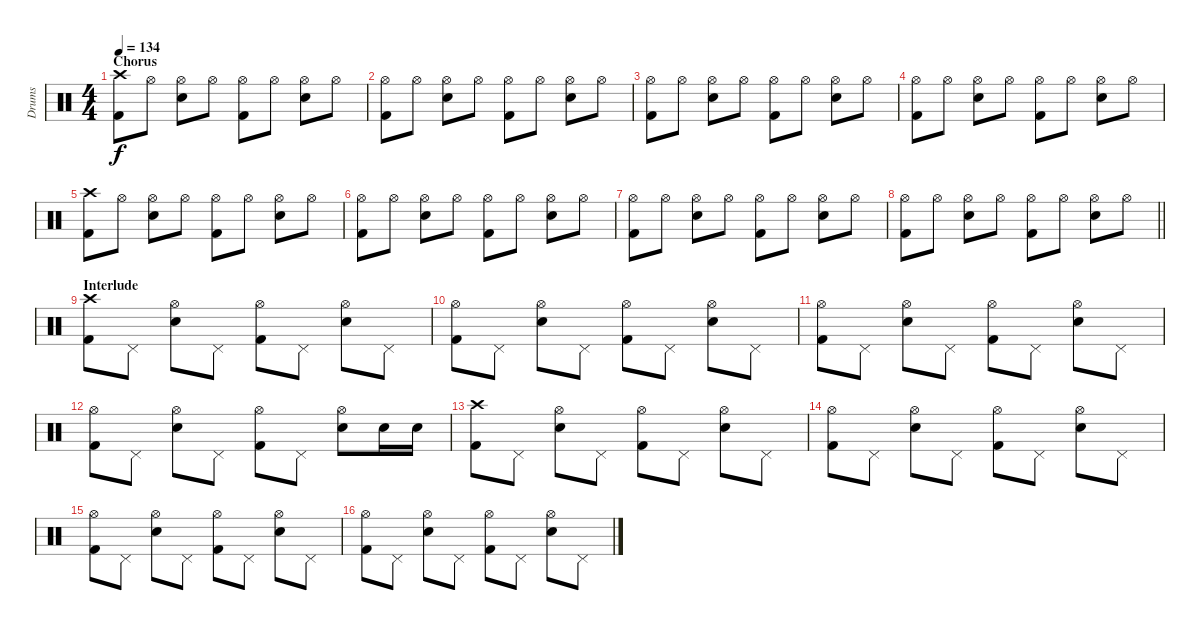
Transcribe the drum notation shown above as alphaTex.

\track ("Drums" "Drums") {instrument percussion}
\staff {score}
\articulation defaults
\ts (4 4)
\section ("" "Chorus")
\tempo 134
\clef neutral
\ks c
("Crash high (hit)" "Kick (hit) 2").8{dy f} "Hi-Hat (open)".8 ("Hi-Hat (open)" "Snare (hit) 2").8 "Hi-Hat (open)".8 ("Hi-Hat (open)" "Kick (hit) 2").8 "Hi-Hat (open)".8 ("Hi-Hat (open)" "Snare (hit) 2").8 "Hi-Hat (open)".8 |
("Hi-Hat (open)" "Kick (hit) 2").8 "Hi-Hat (open)".8 ("Hi-Hat (open)" "Snare (hit) 2").8 "Hi-Hat (open)".8 ("Hi-Hat (open)" "Kick (hit) 2").8 "Hi-Hat (open)".8 ("Hi-Hat (open)" "Snare (hit) 2").8 "Hi-Hat (open)".8 |
("Hi-Hat (open)" "Kick (hit) 2").8 "Hi-Hat (open)".8 ("Hi-Hat (open)" "Snare (hit) 2").8 "Hi-Hat (open)".8 ("Hi-Hat (open)" "Kick (hit) 2").8 "Hi-Hat (open)".8 ("Hi-Hat (open)" "Snare (hit) 2").8 "Hi-Hat (open)".8 |
("Hi-Hat (open)" "Kick (hit) 2").8 "Hi-Hat (open)".8 ("Hi-Hat (open)" "Snare (hit) 2").8 "Hi-Hat (open)".8 ("Hi-Hat (open)" "Kick (hit) 2").8 "Hi-Hat (open)".8 ("Hi-Hat (open)" "Snare (hit) 2").8 "Hi-Hat (open)".8 |
("Crash high (hit)" "Kick (hit) 2").8 "Hi-Hat (open)".8 ("Hi-Hat (open)" "Snare (hit) 2").8 "Hi-Hat (open)".8 ("Hi-Hat (open)" "Kick (hit) 2").8 "Hi-Hat (open)".8 ("Hi-Hat (open)" "Snare (hit) 2").8 "Hi-Hat (open)".8 |
("Hi-Hat (open)" "Kick (hit) 2").8 "Hi-Hat (open)".8 ("Hi-Hat (open)" "Snare (hit) 2").8 "Hi-Hat (open)".8 ("Hi-Hat (open)" "Kick (hit) 2").8 "Hi-Hat (open)".8 ("Hi-Hat (open)" "Snare (hit) 2").8 "Hi-Hat (open)".8 |
("Hi-Hat (open)" "Kick (hit) 2").8 "Hi-Hat (open)".8 ("Hi-Hat (open)" "Snare (hit) 2").8 "Hi-Hat (open)".8 ("Hi-Hat (open)" "Kick (hit) 2").8 "Hi-Hat (open)".8 ("Hi-Hat (open)" "Snare (hit) 2").8 "Hi-Hat (open)".8 |
\barLineRight lightlight
("Hi-Hat (open)" "Kick (hit) 2").8 "Hi-Hat (open)".8 ("Hi-Hat (open)" "Snare (hit) 2").8 "Hi-Hat (open)".8 ("Hi-Hat (open)" "Kick (hit) 2").8 "Hi-Hat (open)".8 ("Hi-Hat (open)" "Snare (hit) 2").8 "Hi-Hat (open)".8 |
\section ("" "Interlude")
("Crash high (hit)" "Kick (hit) 2").8 "Pedal Hi-Hat (hit)".8 ("Hi-Hat (open)" "Snare (hit) 2").8 "Pedal Hi-Hat (hit)".8 ("Hi-Hat (open)" "Kick (hit) 2").8 "Pedal Hi-Hat (hit)".8 ("Hi-Hat (open)" "Snare (hit) 2").8 "Pedal Hi-Hat (hit)".8 |
("Hi-Hat (open)" "Kick (hit) 2").8 "Pedal Hi-Hat (hit)".8 ("Hi-Hat (open)" "Snare (hit) 2").8 "Pedal Hi-Hat (hit)".8 ("Hi-Hat (open)" "Kick (hit) 2").8 "Pedal Hi-Hat (hit)".8 ("Hi-Hat (open)" "Snare (hit) 2").8 "Pedal Hi-Hat (hit)".8 |
("Hi-Hat (open)" "Kick (hit) 2").8 "Pedal Hi-Hat (hit)".8 ("Hi-Hat (open)" "Snare (hit) 2").8 "Pedal Hi-Hat (hit)".8 ("Hi-Hat (open)" "Kick (hit) 2").8 "Pedal Hi-Hat (hit)".8 ("Hi-Hat (open)" "Snare (hit) 2").8 "Pedal Hi-Hat (hit)".8 |
("Hi-Hat (open)" "Kick (hit) 2").8 "Pedal Hi-Hat (hit)".8 ("Hi-Hat (open)" "Snare (hit) 2").8 "Pedal Hi-Hat (hit)".8 ("Hi-Hat (open)" "Kick (hit) 2").8 "Pedal Hi-Hat (hit)".8 ("Hi-Hat (open)" "Snare (hit) 2").8 "Snare (hit) 2".16 "Snare (hit) 2".16 |
("Crash high (hit)" "Kick (hit) 2").8 "Pedal Hi-Hat (hit)".8 ("Hi-Hat (open)" "Snare (hit) 2").8 "Pedal Hi-Hat (hit)".8 ("Hi-Hat (open)" "Kick (hit) 2").8 "Pedal Hi-Hat (hit)".8 ("Hi-Hat (open)" "Snare (hit) 2").8 "Pedal Hi-Hat (hit)".8 |
("Hi-Hat (open)" "Kick (hit) 2").8 "Pedal Hi-Hat (hit)".8 ("Hi-Hat (open)" "Snare (hit) 2").8 "Pedal Hi-Hat (hit)".8 ("Hi-Hat (open)" "Kick (hit) 2").8 "Pedal Hi-Hat (hit)".8 ("Hi-Hat (open)" "Snare (hit) 2").8 "Pedal Hi-Hat (hit)".8 |
("Hi-Hat (open)" "Kick (hit) 2").8 "Pedal Hi-Hat (hit)".8 ("Hi-Hat (open)" "Snare (hit) 2").8 "Pedal Hi-Hat (hit)".8 ("Hi-Hat (open)" "Kick (hit) 2").8 "Pedal Hi-Hat (hit)".8 ("Hi-Hat (open)" "Snare (hit) 2").8 "Pedal Hi-Hat (hit)".8 |
("Hi-Hat (open)" "Kick (hit) 2").8 "Pedal Hi-Hat (hit)".8 ("Hi-Hat (open)" "Snare (hit) 2").8 "Pedal Hi-Hat (hit)".8 ("Hi-Hat (open)" "Kick (hit) 2").8 "Pedal Hi-Hat (hit)".8 ("Hi-Hat (open)" "Snare (hit) 2").8 "Pedal Hi-Hat (hit)".8
